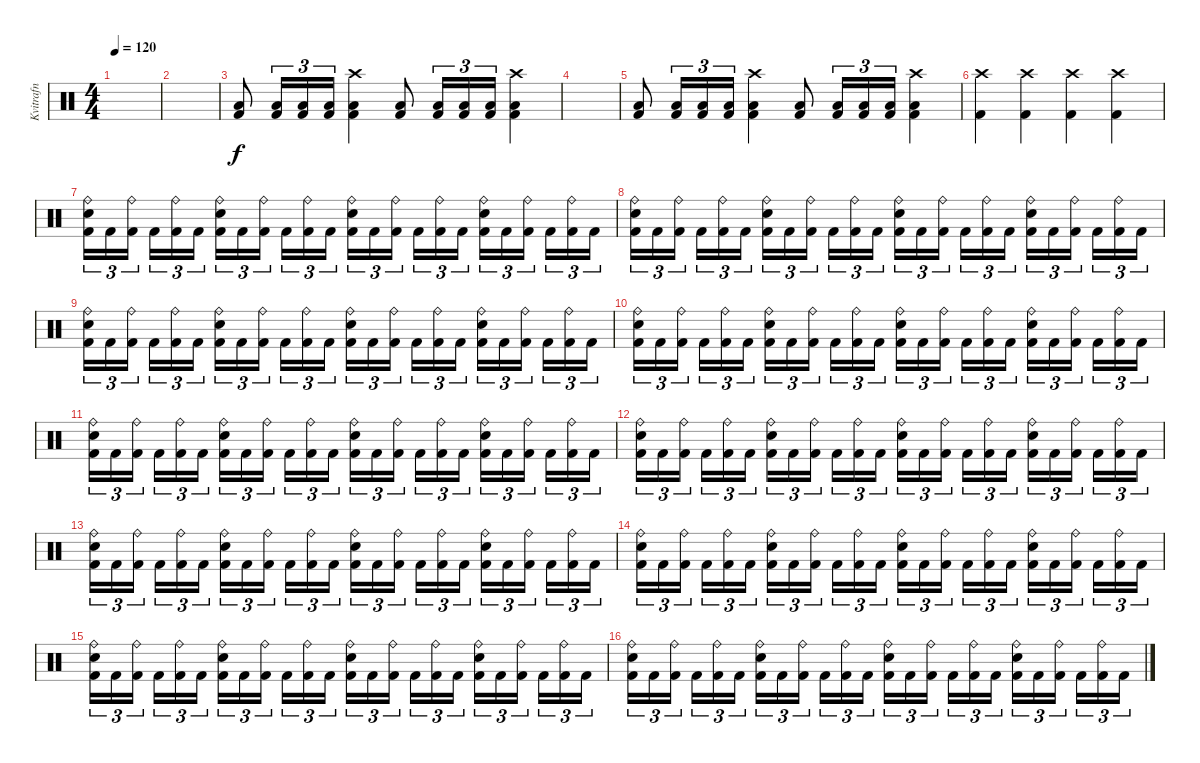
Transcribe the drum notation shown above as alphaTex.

\track ("Kvitrafn" "Kvitrafn") {instrument percussion}
\staff {score}
\articulation defaults
\ts (4 4)
\tempo 120
\clef neutral
\ks c
|
|
("Low Floor Tom (hit)" "Kick (hit) 2").8 ("Low Floor Tom (hit)" "Kick (hit) 2").16{tu (3 2)} ("Low Floor Tom (hit)" "Kick (hit) 2").16{tu (3 2)} ("Low Floor Tom (hit)" "Kick (hit) 2").16{tu (3 2)} ("Crash high (hit)" "Low Floor Tom (hit)" "Kick (hit) 2").4 ("Low Floor Tom (hit)" "Kick (hit) 2").8 ("Low Floor Tom (hit)" "Kick (hit) 2").16{tu (3 2)} ("Low Floor Tom (hit)" "Kick (hit) 2").16{tu (3 2)} ("Low Floor Tom (hit)" "Kick (hit) 2").16{tu (3 2)} ("Crash high (hit)" "Low Floor Tom (hit)" "Kick (hit) 2").4 |
|
("Low Floor Tom (hit)" "Kick (hit) 2").8 ("Low Floor Tom (hit)" "Kick (hit) 2").16{tu (3 2)} ("Low Floor Tom (hit)" "Kick (hit) 2").16{tu (3 2)} ("Low Floor Tom (hit)" "Kick (hit) 2").16{tu (3 2)} ("Crash high (hit)" "Low Floor Tom (hit)" "Kick (hit) 2").4 ("Low Floor Tom (hit)" "Kick (hit) 2").8 ("Low Floor Tom (hit)" "Kick (hit) 2").16{tu (3 2)} ("Low Floor Tom (hit)" "Kick (hit) 2").16{tu (3 2)} ("Low Floor Tom (hit)" "Kick (hit) 2").16{tu (3 2)} ("Crash high (hit)" "Low Floor Tom (hit)" "Kick (hit) 2").4 |
("Crash high (hit)" "Kick (hit) 2").4 ("Crash high (hit)" "Kick (hit) 2").4 ("Crash high (hit)" "Kick (hit) 2").4 ("Crash high (hit)" "Kick (hit) 2").4 |
("Ride (bell)" "Electric Snare (hit)" "Kick (hit) 2").16{tu (3 2)} "Kick (hit) 2".16{tu (3 2)} ("Ride (bell)" "Kick (hit) 2").16{tu (3 2) beam splitsecondary} "Kick (hit) 2".16{tu (3 2)} ("Ride (bell)" "Kick (hit) 2").16{tu (3 2)} "Kick (hit) 2".16{tu (3 2)} ("Ride (bell)" "Electric Snare (hit)" "Kick (hit) 2").16{tu (3 2)} "Kick (hit) 2".16{tu (3 2)} ("Ride (bell)" "Kick (hit) 2").16{tu (3 2) beam splitsecondary} "Kick (hit) 2".16{tu (3 2)} ("Ride (bell)" "Kick (hit) 2").16{tu (3 2)} "Kick (hit) 2".16{tu (3 2)} ("Ride (bell)" "Electric Snare (hit)" "Kick (hit) 2").16{tu (3 2)} "Kick (hit) 2".16{tu (3 2)} ("Ride (bell)" "Kick (hit) 2").16{tu (3 2) beam splitsecondary} "Kick (hit) 2".16{tu (3 2)} ("Ride (bell)" "Kick (hit) 2").16{tu (3 2)} "Kick (hit) 2".16{tu (3 2)} ("Ride (bell)" "Electric Snare (hit)" "Kick (hit) 2").16{tu (3 2)} "Kick (hit) 2".16{tu (3 2)} ("Ride (bell)" "Kick (hit) 2").16{tu (3 2) beam splitsecondary} "Kick (hit) 2".16{tu (3 2)} ("Ride (bell)" "Kick (hit) 2").16{tu (3 2)} "Kick (hit) 2".16{tu (3 2)} |
("Ride (bell)" "Electric Snare (hit)" "Kick (hit) 2").16{tu (3 2)} "Kick (hit) 2".16{tu (3 2)} ("Ride (bell)" "Kick (hit) 2").16{tu (3 2) beam splitsecondary} "Kick (hit) 2".16{tu (3 2)} ("Ride (bell)" "Kick (hit) 2").16{tu (3 2)} "Kick (hit) 2".16{tu (3 2)} ("Ride (bell)" "Electric Snare (hit)" "Kick (hit) 2").16{tu (3 2)} "Kick (hit) 2".16{tu (3 2)} ("Ride (bell)" "Kick (hit) 2").16{tu (3 2) beam splitsecondary} "Kick (hit) 2".16{tu (3 2)} ("Ride (bell)" "Kick (hit) 2").16{tu (3 2)} "Kick (hit) 2".16{tu (3 2)} ("Ride (bell)" "Electric Snare (hit)" "Kick (hit) 2").16{tu (3 2)} "Kick (hit) 2".16{tu (3 2)} ("Ride (bell)" "Kick (hit) 2").16{tu (3 2) beam splitsecondary} "Kick (hit) 2".16{tu (3 2)} ("Ride (bell)" "Kick (hit) 2").16{tu (3 2)} "Kick (hit) 2".16{tu (3 2)} ("Ride (bell)" "Electric Snare (hit)" "Kick (hit) 2").16{tu (3 2)} "Kick (hit) 2".16{tu (3 2)} ("Ride (bell)" "Kick (hit) 2").16{tu (3 2) beam splitsecondary} "Kick (hit) 2".16{tu (3 2)} ("Ride (bell)" "Kick (hit) 2").16{tu (3 2)} "Kick (hit) 2".16{tu (3 2)} |
("Ride (bell)" "Electric Snare (hit)" "Kick (hit) 2").16{tu (3 2)} "Kick (hit) 2".16{tu (3 2)} ("Ride (bell)" "Kick (hit) 2").16{tu (3 2) beam splitsecondary} "Kick (hit) 2".16{tu (3 2)} ("Ride (bell)" "Kick (hit) 2").16{tu (3 2)} "Kick (hit) 2".16{tu (3 2)} ("Ride (bell)" "Electric Snare (hit)" "Kick (hit) 2").16{tu (3 2)} "Kick (hit) 2".16{tu (3 2)} ("Ride (bell)" "Kick (hit) 2").16{tu (3 2) beam splitsecondary} "Kick (hit) 2".16{tu (3 2)} ("Ride (bell)" "Kick (hit) 2").16{tu (3 2)} "Kick (hit) 2".16{tu (3 2)} ("Ride (bell)" "Electric Snare (hit)" "Kick (hit) 2").16{tu (3 2)} "Kick (hit) 2".16{tu (3 2)} ("Ride (bell)" "Kick (hit) 2").16{tu (3 2) beam splitsecondary} "Kick (hit) 2".16{tu (3 2)} ("Ride (bell)" "Kick (hit) 2").16{tu (3 2)} "Kick (hit) 2".16{tu (3 2)} ("Ride (bell)" "Electric Snare (hit)" "Kick (hit) 2").16{tu (3 2)} "Kick (hit) 2".16{tu (3 2)} ("Ride (bell)" "Kick (hit) 2").16{tu (3 2) beam splitsecondary} "Kick (hit) 2".16{tu (3 2)} ("Ride (bell)" "Kick (hit) 2").16{tu (3 2)} "Kick (hit) 2".16{tu (3 2)} |
("Ride (bell)" "Electric Snare (hit)" "Kick (hit) 2").16{tu (3 2)} "Kick (hit) 2".16{tu (3 2)} ("Ride (bell)" "Kick (hit) 2").16{tu (3 2) beam splitsecondary} "Kick (hit) 2".16{tu (3 2)} ("Ride (bell)" "Kick (hit) 2").16{tu (3 2)} "Kick (hit) 2".16{tu (3 2)} ("Ride (bell)" "Electric Snare (hit)" "Kick (hit) 2").16{tu (3 2)} "Kick (hit) 2".16{tu (3 2)} ("Ride (bell)" "Kick (hit) 2").16{tu (3 2) beam splitsecondary} "Kick (hit) 2".16{tu (3 2)} ("Ride (bell)" "Kick (hit) 2").16{tu (3 2)} "Kick (hit) 2".16{tu (3 2)} ("Ride (bell)" "Electric Snare (hit)" "Kick (hit) 2").16{tu (3 2)} "Kick (hit) 2".16{tu (3 2)} ("Ride (bell)" "Kick (hit) 2").16{tu (3 2) beam splitsecondary} "Kick (hit) 2".16{tu (3 2)} ("Ride (bell)" "Kick (hit) 2").16{tu (3 2)} "Kick (hit) 2".16{tu (3 2)} ("Ride (bell)" "Electric Snare (hit)" "Kick (hit) 2").16{tu (3 2)} "Kick (hit) 2".16{tu (3 2)} ("Ride (bell)" "Kick (hit) 2").16{tu (3 2) beam splitsecondary} "Kick (hit) 2".16{tu (3 2)} ("Ride (bell)" "Kick (hit) 2").16{tu (3 2)} "Kick (hit) 2".16{tu (3 2)} |
("Ride (bell)" "Electric Snare (hit)" "Kick (hit) 2").16{tu (3 2)} "Kick (hit) 2".16{tu (3 2)} ("Ride (bell)" "Kick (hit) 2").16{tu (3 2) beam splitsecondary} "Kick (hit) 2".16{tu (3 2)} ("Ride (bell)" "Kick (hit) 2").16{tu (3 2)} "Kick (hit) 2".16{tu (3 2)} ("Ride (bell)" "Electric Snare (hit)" "Kick (hit) 2").16{tu (3 2)} "Kick (hit) 2".16{tu (3 2)} ("Ride (bell)" "Kick (hit) 2").16{tu (3 2) beam splitsecondary} "Kick (hit) 2".16{tu (3 2)} ("Ride (bell)" "Kick (hit) 2").16{tu (3 2)} "Kick (hit) 2".16{tu (3 2)} ("Ride (bell)" "Electric Snare (hit)" "Kick (hit) 2").16{tu (3 2)} "Kick (hit) 2".16{tu (3 2)} ("Ride (bell)" "Kick (hit) 2").16{tu (3 2) beam splitsecondary} "Kick (hit) 2".16{tu (3 2)} ("Ride (bell)" "Kick (hit) 2").16{tu (3 2)} "Kick (hit) 2".16{tu (3 2)} ("Ride (bell)" "Electric Snare (hit)" "Kick (hit) 2").16{tu (3 2)} "Kick (hit) 2".16{tu (3 2)} ("Ride (bell)" "Kick (hit) 2").16{tu (3 2) beam splitsecondary} "Kick (hit) 2".16{tu (3 2)} ("Ride (bell)" "Kick (hit) 2").16{tu (3 2)} "Kick (hit) 2".16{tu (3 2)} |
("Ride (bell)" "Electric Snare (hit)" "Kick (hit) 2").16{tu (3 2)} "Kick (hit) 2".16{tu (3 2)} ("Ride (bell)" "Kick (hit) 2").16{tu (3 2) beam splitsecondary} "Kick (hit) 2".16{tu (3 2)} ("Ride (bell)" "Kick (hit) 2").16{tu (3 2)} "Kick (hit) 2".16{tu (3 2)} ("Ride (bell)" "Electric Snare (hit)" "Kick (hit) 2").16{tu (3 2)} "Kick (hit) 2".16{tu (3 2)} ("Ride (bell)" "Kick (hit) 2").16{tu (3 2) beam splitsecondary} "Kick (hit) 2".16{tu (3 2)} ("Ride (bell)" "Kick (hit) 2").16{tu (3 2)} "Kick (hit) 2".16{tu (3 2)} ("Ride (bell)" "Electric Snare (hit)" "Kick (hit) 2").16{tu (3 2)} "Kick (hit) 2".16{tu (3 2)} ("Ride (bell)" "Kick (hit) 2").16{tu (3 2) beam splitsecondary} "Kick (hit) 2".16{tu (3 2)} ("Ride (bell)" "Kick (hit) 2").16{tu (3 2)} "Kick (hit) 2".16{tu (3 2)} ("Ride (bell)" "Electric Snare (hit)" "Kick (hit) 2").16{tu (3 2)} "Kick (hit) 2".16{tu (3 2)} ("Ride (bell)" "Kick (hit) 2").16{tu (3 2) beam splitsecondary} "Kick (hit) 2".16{tu (3 2)} ("Ride (bell)" "Kick (hit) 2").16{tu (3 2)} "Kick (hit) 2".16{tu (3 2)} |
("Ride (bell)" "Electric Snare (hit)" "Kick (hit) 2").16{tu (3 2)} "Kick (hit) 2".16{tu (3 2)} ("Ride (bell)" "Kick (hit) 2").16{tu (3 2) beam splitsecondary} "Kick (hit) 2".16{tu (3 2)} ("Ride (bell)" "Kick (hit) 2").16{tu (3 2)} "Kick (hit) 2".16{tu (3 2)} ("Ride (bell)" "Electric Snare (hit)" "Kick (hit) 2").16{tu (3 2)} "Kick (hit) 2".16{tu (3 2)} ("Ride (bell)" "Kick (hit) 2").16{tu (3 2) beam splitsecondary} "Kick (hit) 2".16{tu (3 2)} ("Ride (bell)" "Kick (hit) 2").16{tu (3 2)} "Kick (hit) 2".16{tu (3 2)} ("Ride (bell)" "Electric Snare (hit)" "Kick (hit) 2").16{tu (3 2)} "Kick (hit) 2".16{tu (3 2)} ("Ride (bell)" "Kick (hit) 2").16{tu (3 2) beam splitsecondary} "Kick (hit) 2".16{tu (3 2)} ("Ride (bell)" "Kick (hit) 2").16{tu (3 2)} "Kick (hit) 2".16{tu (3 2)} ("Ride (bell)" "Electric Snare (hit)" "Kick (hit) 2").16{tu (3 2)} "Kick (hit) 2".16{tu (3 2)} ("Ride (bell)" "Kick (hit) 2").16{tu (3 2) beam splitsecondary} "Kick (hit) 2".16{tu (3 2)} ("Ride (bell)" "Kick (hit) 2").16{tu (3 2)} "Kick (hit) 2".16{tu (3 2)} |
("Ride (bell)" "Electric Snare (hit)" "Kick (hit) 2").16{tu (3 2)} "Kick (hit) 2".16{tu (3 2)} ("Ride (bell)" "Kick (hit) 2").16{tu (3 2) beam splitsecondary} "Kick (hit) 2".16{tu (3 2)} ("Ride (bell)" "Kick (hit) 2").16{tu (3 2)} "Kick (hit) 2".16{tu (3 2)} ("Ride (bell)" "Electric Snare (hit)" "Kick (hit) 2").16{tu (3 2)} "Kick (hit) 2".16{tu (3 2)} ("Ride (bell)" "Kick (hit) 2").16{tu (3 2) beam splitsecondary} "Kick (hit) 2".16{tu (3 2)} ("Ride (bell)" "Kick (hit) 2").16{tu (3 2)} "Kick (hit) 2".16{tu (3 2)} ("Ride (bell)" "Electric Snare (hit)" "Kick (hit) 2").16{tu (3 2)} "Kick (hit) 2".16{tu (3 2)} ("Ride (bell)" "Kick (hit) 2").16{tu (3 2) beam splitsecondary} "Kick (hit) 2".16{tu (3 2)} ("Ride (bell)" "Kick (hit) 2").16{tu (3 2)} "Kick (hit) 2".16{tu (3 2)} ("Ride (bell)" "Electric Snare (hit)" "Kick (hit) 2").16{tu (3 2)} "Kick (hit) 2".16{tu (3 2)} ("Ride (bell)" "Kick (hit) 2").16{tu (3 2) beam splitsecondary} "Kick (hit) 2".16{tu (3 2)} ("Ride (bell)" "Kick (hit) 2").16{tu (3 2)} "Kick (hit) 2".16{tu (3 2)} |
("Ride (bell)" "Electric Snare (hit)" "Kick (hit) 2").16{tu (3 2)} "Kick (hit) 2".16{tu (3 2)} ("Ride (bell)" "Kick (hit) 2").16{tu (3 2) beam splitsecondary} "Kick (hit) 2".16{tu (3 2)} ("Ride (bell)" "Kick (hit) 2").16{tu (3 2)} "Kick (hit) 2".16{tu (3 2)} ("Ride (bell)" "Electric Snare (hit)" "Kick (hit) 2").16{tu (3 2)} "Kick (hit) 2".16{tu (3 2)} ("Ride (bell)" "Kick (hit) 2").16{tu (3 2) beam splitsecondary} "Kick (hit) 2".16{tu (3 2)} ("Ride (bell)" "Kick (hit) 2").16{tu (3 2)} "Kick (hit) 2".16{tu (3 2)} ("Ride (bell)" "Electric Snare (hit)" "Kick (hit) 2").16{tu (3 2)} "Kick (hit) 2".16{tu (3 2)} ("Ride (bell)" "Kick (hit) 2").16{tu (3 2) beam splitsecondary} "Kick (hit) 2".16{tu (3 2)} ("Ride (bell)" "Kick (hit) 2").16{tu (3 2)} "Kick (hit) 2".16{tu (3 2)} ("Ride (bell)" "Electric Snare (hit)" "Kick (hit) 2").16{tu (3 2)} "Kick (hit) 2".16{tu (3 2)} ("Ride (bell)" "Kick (hit) 2").16{tu (3 2) beam splitsecondary} "Kick (hit) 2".16{tu (3 2)} ("Ride (bell)" "Kick (hit) 2").16{tu (3 2)} "Kick (hit) 2".16{tu (3 2)} |
("Ride (bell)" "Electric Snare (hit)" "Kick (hit) 2").16{tu (3 2)} "Kick (hit) 2".16{tu (3 2)} ("Ride (bell)" "Kick (hit) 2").16{tu (3 2) beam splitsecondary} "Kick (hit) 2".16{tu (3 2)} ("Ride (bell)" "Kick (hit) 2").16{tu (3 2)} "Kick (hit) 2".16{tu (3 2)} ("Ride (bell)" "Electric Snare (hit)" "Kick (hit) 2").16{tu (3 2)} "Kick (hit) 2".16{tu (3 2)} ("Ride (bell)" "Kick (hit) 2").16{tu (3 2) beam splitsecondary} "Kick (hit) 2".16{tu (3 2)} ("Ride (bell)" "Kick (hit) 2").16{tu (3 2)} "Kick (hit) 2".16{tu (3 2)} ("Ride (bell)" "Electric Snare (hit)" "Kick (hit) 2").16{tu (3 2)} "Kick (hit) 2".16{tu (3 2)} ("Ride (bell)" "Kick (hit) 2").16{tu (3 2) beam splitsecondary} "Kick (hit) 2".16{tu (3 2)} ("Ride (bell)" "Kick (hit) 2").16{tu (3 2)} "Kick (hit) 2".16{tu (3 2)} ("Ride (bell)" "Electric Snare (hit)" "Kick (hit) 2").16{tu (3 2)} "Kick (hit) 2".16{tu (3 2)} ("Ride (bell)" "Kick (hit) 2").16{tu (3 2) beam splitsecondary} "Kick (hit) 2".16{tu (3 2)} ("Ride (bell)" "Kick (hit) 2").16{tu (3 2)} "Kick (hit) 2".16{tu (3 2)}
